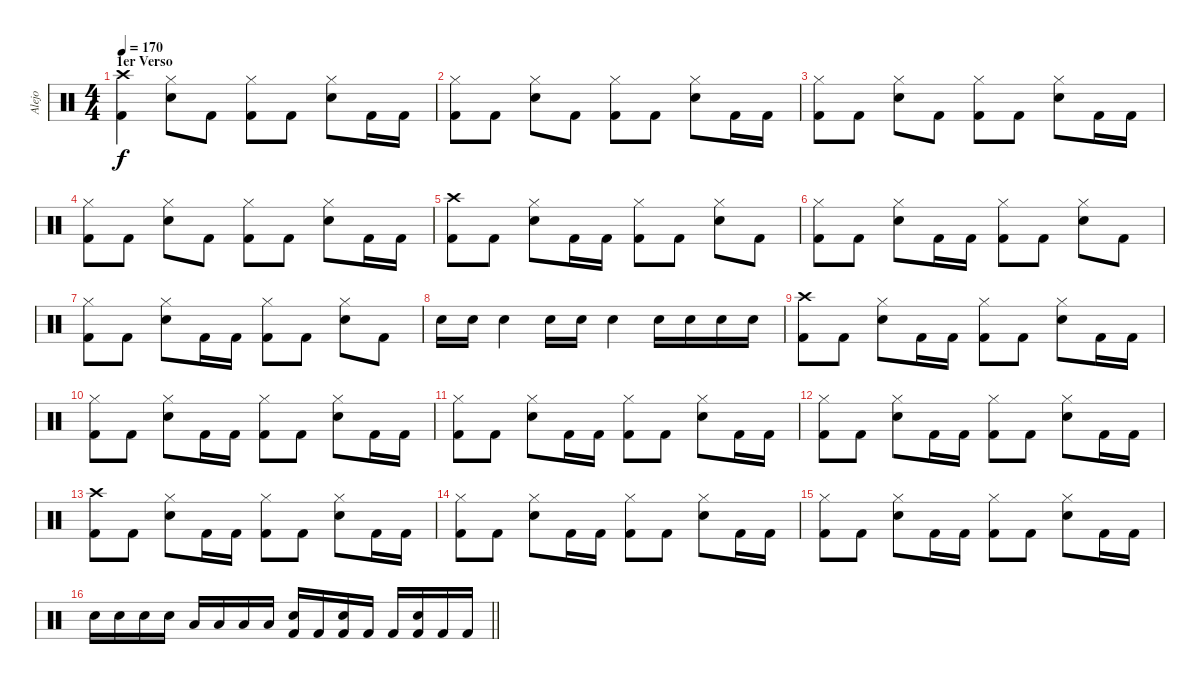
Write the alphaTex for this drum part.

\track ("Alejo" "Alejo") {instrument percussion}
\staff {score}
\articulation defaults
\ts (4 4)
\section ("" "1er Verso")
\tempo 170
\clef neutral
\ks c
("Kick (hit) 2" "Crash high (hit)").4{dy f} ("Snare (hit) 2" "Hi-Hat (closed)").8 "Kick (hit) 2".8 ("Hi-Hat (closed)" "Kick (hit) 2").8 "Kick (hit) 2".8 ("Snare (hit) 2" "Hi-Hat (closed)").8 "Kick (hit) 2".16 "Kick (hit) 2".16 |
("Hi-Hat (closed)" "Kick (hit) 2").8 "Kick (hit) 2".8 ("Snare (hit) 2" "Hi-Hat (closed)").8 "Kick (hit) 2".8 ("Hi-Hat (closed)" "Kick (hit) 2").8 "Kick (hit) 2".8 ("Snare (hit) 2" "Hi-Hat (closed)").8 "Kick (hit) 2".16 "Kick (hit) 2".16 |
("Hi-Hat (closed)" "Kick (hit) 2").8 "Kick (hit) 2".8 ("Snare (hit) 2" "Hi-Hat (closed)").8 "Kick (hit) 2".8 ("Hi-Hat (closed)" "Kick (hit) 2").8 "Kick (hit) 2".8 ("Snare (hit) 2" "Hi-Hat (closed)").8 "Kick (hit) 2".16 "Kick (hit) 2".16 |
("Hi-Hat (closed)" "Kick (hit) 2").8 "Kick (hit) 2".8 ("Snare (hit) 2" "Hi-Hat (closed)").8 "Kick (hit) 2".8 ("Hi-Hat (closed)" "Kick (hit) 2").8 "Kick (hit) 2".8 ("Snare (hit) 2" "Hi-Hat (closed)").8 "Kick (hit) 2".16 "Kick (hit) 2".16 |
("Kick (hit) 2" "Crash high (hit)").8 "Kick (hit) 2".8 ("Snare (hit) 2" "Hi-Hat (closed)").8 "Kick (hit) 2".16 "Kick (hit) 2".16 ("Hi-Hat (closed)" "Kick (hit) 2").8 "Kick (hit) 2".8 ("Snare (hit) 2" "Hi-Hat (closed)").8 "Kick (hit) 2".8 |
("Hi-Hat (closed)" "Kick (hit) 2").8 "Kick (hit) 2".8 ("Snare (hit) 2" "Hi-Hat (closed)").8 "Kick (hit) 2".16 "Kick (hit) 2".16 ("Hi-Hat (closed)" "Kick (hit) 2").8 "Kick (hit) 2".8 ("Snare (hit) 2" "Hi-Hat (closed)").8 "Kick (hit) 2".8 |
("Hi-Hat (closed)" "Kick (hit) 2").8 "Kick (hit) 2".8 ("Snare (hit) 2" "Hi-Hat (closed)").8 "Kick (hit) 2".16 "Kick (hit) 2".16 ("Hi-Hat (closed)" "Kick (hit) 2").8 "Kick (hit) 2".8 ("Snare (hit) 2" "Hi-Hat (closed)").8 "Kick (hit) 2".8 |
"Snare (hit) 2".16 "Snare (hit) 2".16 "Snare (hit) 2".4 "Snare (hit) 2".16 "Snare (hit) 2".16 "Snare (hit) 2".4 "Snare (hit) 2".16 "Snare (hit) 2".16 "Snare (hit) 2".16 "Snare (hit) 2".16 |
("Crash high (hit)" "Kick (hit) 2").8 "Kick (hit) 2".8 ("Snare (hit) 2" "Hi-Hat (closed)").8 "Kick (hit) 2".16 "Kick (hit) 2".16 ("Hi-Hat (closed)" "Kick (hit) 2").8 "Kick (hit) 2".8 ("Snare (hit) 2" "Hi-Hat (closed)").8 "Kick (hit) 2".16 "Kick (hit) 2".16 |
("Hi-Hat (closed)" "Kick (hit) 2").8 "Kick (hit) 2".8 ("Snare (hit) 2" "Hi-Hat (closed)").8 "Kick (hit) 2".16 "Kick (hit) 2".16 ("Hi-Hat (closed)" "Kick (hit) 2").8 "Kick (hit) 2".8 ("Snare (hit) 2" "Hi-Hat (closed)").8 "Kick (hit) 2".16 "Kick (hit) 2".16 |
("Hi-Hat (closed)" "Kick (hit) 2").8 "Kick (hit) 2".8 ("Snare (hit) 2" "Hi-Hat (closed)").8 "Kick (hit) 2".16 "Kick (hit) 2".16 ("Hi-Hat (closed)" "Kick (hit) 2").8 "Kick (hit) 2".8 ("Snare (hit) 2" "Hi-Hat (closed)").8 "Kick (hit) 2".16 "Kick (hit) 2".16 |
("Hi-Hat (closed)" "Kick (hit) 2").8 "Kick (hit) 2".8 ("Snare (hit) 2" "Hi-Hat (closed)").8 "Kick (hit) 2".16 "Kick (hit) 2".16 ("Hi-Hat (closed)" "Kick (hit) 2").8 "Kick (hit) 2".8 ("Snare (hit) 2" "Hi-Hat (closed)").8 "Kick (hit) 2".16 "Kick (hit) 2".16 |
("Kick (hit) 2" "Crash high (hit)").8 "Kick (hit) 2".8 ("Snare (hit) 2" "Hi-Hat (closed)").8 "Kick (hit) 2".16 "Kick (hit) 2".16 ("Hi-Hat (closed)" "Kick (hit) 2").8 "Kick (hit) 2".8 ("Snare (hit) 2" "Hi-Hat (closed)").8 "Kick (hit) 2".16 "Kick (hit) 2".16 |
("Hi-Hat (closed)" "Kick (hit) 2").8 "Kick (hit) 2".8 ("Snare (hit) 2" "Hi-Hat (closed)").8 "Kick (hit) 2".16 "Kick (hit) 2".16 ("Hi-Hat (closed)" "Kick (hit) 2").8 "Kick (hit) 2".8 ("Snare (hit) 2" "Hi-Hat (closed)").8 "Kick (hit) 2".16 "Kick (hit) 2".16 |
("Hi-Hat (closed)" "Kick (hit) 2").8 "Kick (hit) 2".8 ("Snare (hit) 2" "Hi-Hat (closed)").8 "Kick (hit) 2".16 "Kick (hit) 2".16 ("Hi-Hat (closed)" "Kick (hit) 2").8 "Kick (hit) 2".8 ("Snare (hit) 2" "Hi-Hat (closed)").8 "Kick (hit) 2".16 "Kick (hit) 2".16 |
\barLineRight lightlight "Snare (hit) 2".16 "Snare (hit) 2".16 "Snare (hit) 2".16 "Snare (hit) 2".16 "Low Tom (hit)".16 "Low Tom (hit)".16 "Low Tom (hit)".16 "Low Tom (hit)".16
("Kick (hit) 2" "Snare (hit) 2").16 "Kick (hit) 2".16 ("Kick (hit) 2" "Snare (hit) 2").16 "Kick (hit) 2".16 "Kick (hit) 2".16 ("Kick (hit) 2" "Snare (hit) 2").16 "Kick (hit) 2".16 "Kick (hit) 2".16
